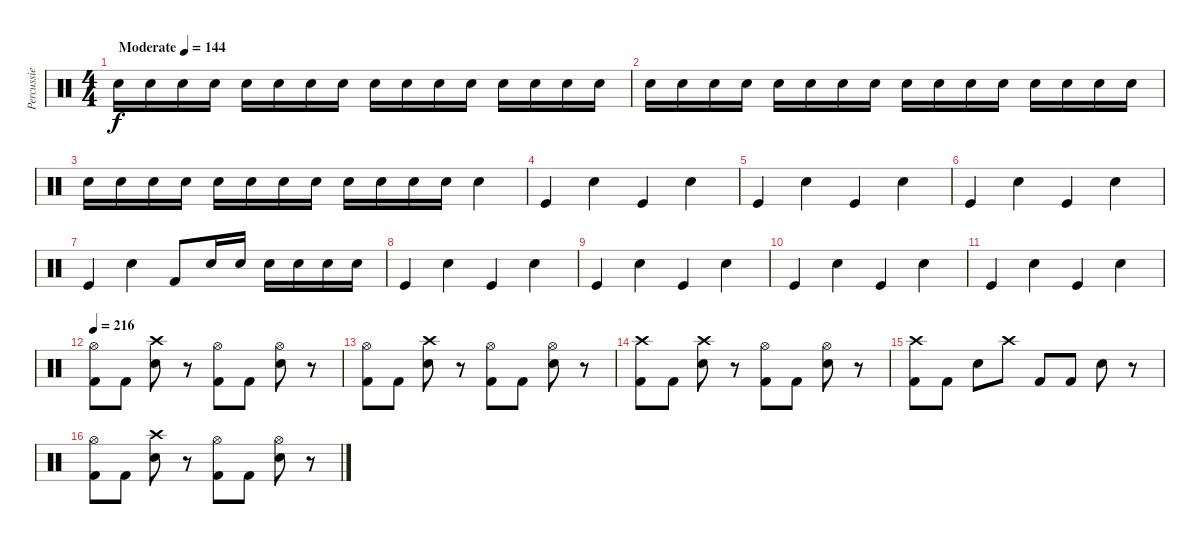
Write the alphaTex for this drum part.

\track ("Percussie" "Percussie") {instrument percussion}
\staff {score}
\articulation defaults
\ts (4 4)
\tempo (144 "Moderate")
\clef neutral
\ks c "Electric Snare (hit)".16{dy f volume 2} "Electric Snare (hit)".16 "Electric Snare (hit)".16 "Electric Snare (hit)".16 "Electric Snare (hit)".16 "Electric Snare (hit)".16 "Electric Snare (hit)".16 "Electric Snare (hit)".16 "Electric Snare (hit)".16{volume 4} "Electric Snare (hit)".16 "Electric Snare (hit)".16 "Electric Snare (hit)".16 "Electric Snare (hit)".16 "Electric Snare (hit)".16 "Electric Snare (hit)".16 "Electric Snare (hit)".16
|
"Electric Snare (hit)".16{volume 6} "Electric Snare (hit)".16 "Electric Snare (hit)".16 "Electric Snare (hit)".16 "Electric Snare (hit)".16 "Electric Snare (hit)".16 "Electric Snare (hit)".16 "Electric Snare (hit)".16 "Electric Snare (hit)".16{volume 8} "Electric Snare (hit)".16 "Electric Snare (hit)".16 "Electric Snare (hit)".16 "Electric Snare (hit)".16 "Electric Snare (hit)".16 "Electric Snare (hit)".16 "Electric Snare (hit)".16 |
"Electric Snare (hit)".16{volume 10} "Electric Snare (hit)".16 "Electric Snare (hit)".16 "Electric Snare (hit)".16 "Electric Snare (hit)".16 "Electric Snare (hit)".16 "Electric Snare (hit)".16 "Electric Snare (hit)".16 "Electric Snare (hit)".16{volume 12} "Electric Snare (hit)".16 "Electric Snare (hit)".16 "Electric Snare (hit)".16 "Electric Snare (hit)".4{volume 16} |
"Kick (hit)".4 "Snare (hit) 2".4 "Kick (hit)".4 "Snare (hit) 2".4 |
"Kick (hit)".4 "Snare (hit) 2".4 "Kick (hit)".4 "Snare (hit) 2".4 |
"Kick (hit)".4 "Snare (hit) 2".4 "Kick (hit)".4 "Snare (hit) 2".4 |
"Kick (hit)".4 "Snare (hit) 2".4 "Kick (hit) 2".8 "Snare (hit) 2".16 "Snare (hit) 2".16 "Snare (hit) 2".16 "Snare (hit) 2".16 "Snare (hit) 2".16 "Snare (hit) 2".16 |
"Kick (hit)".4 "Snare (hit) 2".4 "Kick (hit)".4 "Snare (hit) 2".4 |
"Kick (hit)".4 "Snare (hit) 2".4 "Kick (hit)".4 "Snare (hit) 2".4 |
"Kick (hit)".4 "Snare (hit) 2".4 "Kick (hit)".4 "Snare (hit) 2".4 |
"Kick (hit)".4 "Snare (hit) 2".4 "Kick (hit)".4 "Snare (hit) 2".4 |
\tempo 216
("Hi-Hat (open)" "Kick (hit) 2").8 "Kick (hit) 2".8 ("Crash high (hit)" "Snare (hit) 2").8 r.8 ("Hi-Hat (open)" "Kick (hit) 2").8 "Kick (hit) 2".8 ("Hi-Hat (open)" "Snare (hit) 2").8 r.8 |
("Hi-Hat (open)" "Kick (hit) 2").8 "Kick (hit) 2".8 ("Crash high (hit)" "Snare (hit) 2").8 r.8 ("Hi-Hat (open)" "Kick (hit) 2").8 "Kick (hit) 2".8 ("Hi-Hat (open)" "Snare (hit) 2").8 r.8 |
("Crash high (hit)" "Kick (hit) 2").8 "Kick (hit) 2".8 ("Crash high (hit)" "Snare (hit) 2").8 r.8 ("Hi-Hat (open)" "Kick (hit) 2").8 "Kick (hit) 2".8 ("Hi-Hat (open)" "Snare (hit) 2").8 r.8 |
("Crash high (hit)" "Kick (hit) 2").8 "Kick (hit) 2".8 "Snare (hit) 2".8 "Crash high (hit)".8 "Kick (hit) 2".8 "Kick (hit) 2".8 "Snare (hit) 2".8 r.8 |
("Hi-Hat (open)" "Kick (hit) 2").8 "Kick (hit) 2".8 ("Crash high (hit)" "Snare (hit) 2").8 r.8 ("Hi-Hat (open)" "Kick (hit) 2").8 "Kick (hit) 2".8 ("Hi-Hat (open)" "Snare (hit) 2").8 r.8
